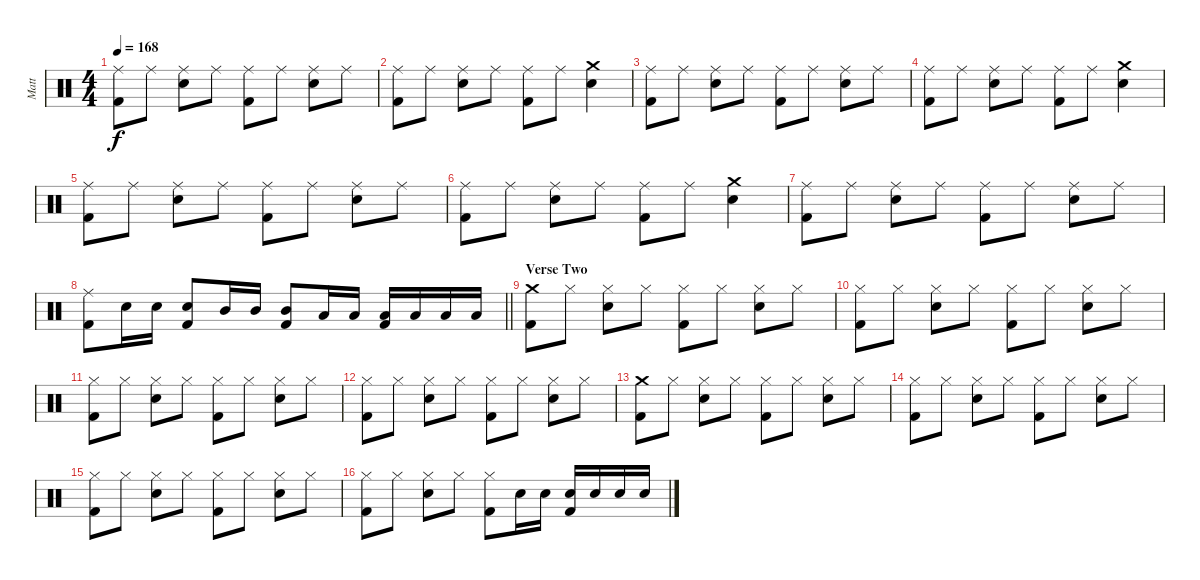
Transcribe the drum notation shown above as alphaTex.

\track ("Matt" "Matt") {instrument percussion}
\staff {score}
\articulation defaults
\ts (4 4)
\tempo 168
\clef neutral
\ks c
("Ride (middle)" "Kick (hit) 2").8{dy f} "Ride (middle)".8 ("Ride (middle)" "Electric Snare (hit)").8 "Ride (middle)".8 ("Ride (middle)" "Kick (hit) 2").8 "Ride (middle)".8 ("Ride (middle)" "Electric Snare (hit)").8 "Ride (middle)".8 |
("Ride (middle)" "Kick (hit) 2").8 "Ride (middle)".8 ("Ride (middle)" "Electric Snare (hit)").8 "Ride (middle)".8 ("Ride (middle)" "Kick (hit) 2").8 "Ride (middle)".8 ("Crash medium (hit)" "Electric Snare (hit)").4 |
("Ride (middle)" "Kick (hit) 2").8 "Ride (middle)".8 ("Ride (middle)" "Electric Snare (hit)").8 "Ride (middle)".8 ("Ride (middle)" "Kick (hit) 2").8 "Ride (middle)".8 ("Ride (middle)" "Electric Snare (hit)").8 "Ride (middle)".8 |
("Ride (middle)" "Kick (hit) 2").8 "Ride (middle)".8 ("Ride (middle)" "Electric Snare (hit)").8 "Ride (middle)".8 ("Ride (middle)" "Kick (hit) 2").8 "Ride (middle)".8 ("Crash medium (hit)" "Electric Snare (hit)").4 |
("Ride (middle)" "Kick (hit) 2").8 "Ride (middle)".8 ("Ride (middle)" "Electric Snare (hit)").8 "Ride (middle)".8 ("Ride (middle)" "Kick (hit) 2").8 "Ride (middle)".8 ("Ride (middle)" "Electric Snare (hit)").8 "Ride (middle)".8 |
("Ride (middle)" "Kick (hit) 2").8 "Ride (middle)".8 ("Ride (middle)" "Electric Snare (hit)").8 "Ride (middle)".8 ("Ride (middle)" "Kick (hit) 2").8 "Ride (middle)".8 ("Crash medium (hit)" "Electric Snare (hit)").4 |
("Ride (middle)" "Kick (hit) 2").8 "Ride (middle)".8 ("Ride (middle)" "Electric Snare (hit)").8 "Ride (middle)".8 ("Ride (middle)" "Kick (hit) 2").8 "Ride (middle)".8 ("Ride (middle)" "Electric Snare (hit)").8 "Ride (middle)".8 |
\barLineRight lightlight
("Ride (middle)" "Kick (hit) 2").8 "Electric Snare (hit)".16 "Electric Snare (hit)".16 ("Electric Snare (hit)" "Kick (hit) 2").8 "Mid Tom (hit)".16 "Mid Tom (hit)".16 ("Mid Tom (hit)" "Kick (hit) 2").8 "Low Tom (hit)".16 "Low Tom (hit)".16 ("Low Tom (hit)" "Kick (hit) 2").16 "Low Tom (hit)".16 "Low Tom (hit)".16 "Low Tom (hit)".16 |
\section ("" "Verse Two")
("Crash medium (hit)" "Kick (hit) 2").8 "Hi-Hat (closed)".8 ("Hi-Hat (closed)" "Electric Snare (hit)").8 "Hi-Hat (closed)".8 ("Hi-Hat (closed)" "Kick (hit) 2").8 "Hi-Hat (closed)".8 ("Hi-Hat (closed)" "Electric Snare (hit)").8 "Hi-Hat (closed)".8 |
("Hi-Hat (closed)" "Kick (hit) 2").8 "Hi-Hat (closed)".8 ("Hi-Hat (closed)" "Electric Snare (hit)").8 "Hi-Hat (closed)".8 ("Hi-Hat (closed)" "Kick (hit) 2").8 "Hi-Hat (closed)".8 ("Hi-Hat (closed)" "Electric Snare (hit)").8 "Hi-Hat (closed)".8 |
("Hi-Hat (closed)" "Kick (hit) 2").8 "Hi-Hat (closed)".8 ("Hi-Hat (closed)" "Electric Snare (hit)").8 "Hi-Hat (closed)".8 ("Hi-Hat (closed)" "Kick (hit) 2").8 "Hi-Hat (closed)".8 ("Hi-Hat (closed)" "Electric Snare (hit)").8 "Hi-Hat (closed)".8 |
("Hi-Hat (closed)" "Kick (hit) 2").8 "Hi-Hat (closed)".8 ("Hi-Hat (closed)" "Electric Snare (hit)").8 "Hi-Hat (closed)".8 ("Hi-Hat (closed)" "Kick (hit) 2").8 "Hi-Hat (closed)".8 ("Hi-Hat (closed)" "Electric Snare (hit)").8 "Hi-Hat (closed)".8 |
("Crash medium (hit)" "Kick (hit) 2").8 "Hi-Hat (closed)".8 ("Hi-Hat (closed)" "Electric Snare (hit)").8 "Hi-Hat (closed)".8 ("Hi-Hat (closed)" "Kick (hit) 2").8 "Hi-Hat (closed)".8 ("Hi-Hat (closed)" "Electric Snare (hit)").8 "Hi-Hat (closed)".8 |
("Hi-Hat (closed)" "Kick (hit) 2").8 "Hi-Hat (closed)".8 ("Hi-Hat (closed)" "Electric Snare (hit)").8 "Hi-Hat (closed)".8 ("Hi-Hat (closed)" "Kick (hit) 2").8 "Hi-Hat (closed)".8 ("Hi-Hat (closed)" "Electric Snare (hit)").8 "Hi-Hat (closed)".8 |
("Hi-Hat (closed)" "Kick (hit) 2").8 "Hi-Hat (closed)".8 ("Hi-Hat (closed)" "Electric Snare (hit)").8 "Hi-Hat (closed)".8 ("Hi-Hat (closed)" "Kick (hit) 2").8 "Hi-Hat (closed)".8 ("Hi-Hat (closed)" "Electric Snare (hit)").8 "Hi-Hat (closed)".8 |
("Hi-Hat (closed)" "Kick (hit) 2").8 "Hi-Hat (closed)".8 ("Hi-Hat (closed)" "Electric Snare (hit)").8 "Hi-Hat (closed)".8 ("Hi-Hat (closed)" "Kick (hit) 2").8 "Electric Snare (hit)".16 "Electric Snare (hit)".16 ("Electric Snare (hit)" "Kick (hit) 2").16 "Electric Snare (hit)".16 "Electric Snare (hit)".16 "Electric Snare (hit)".16
